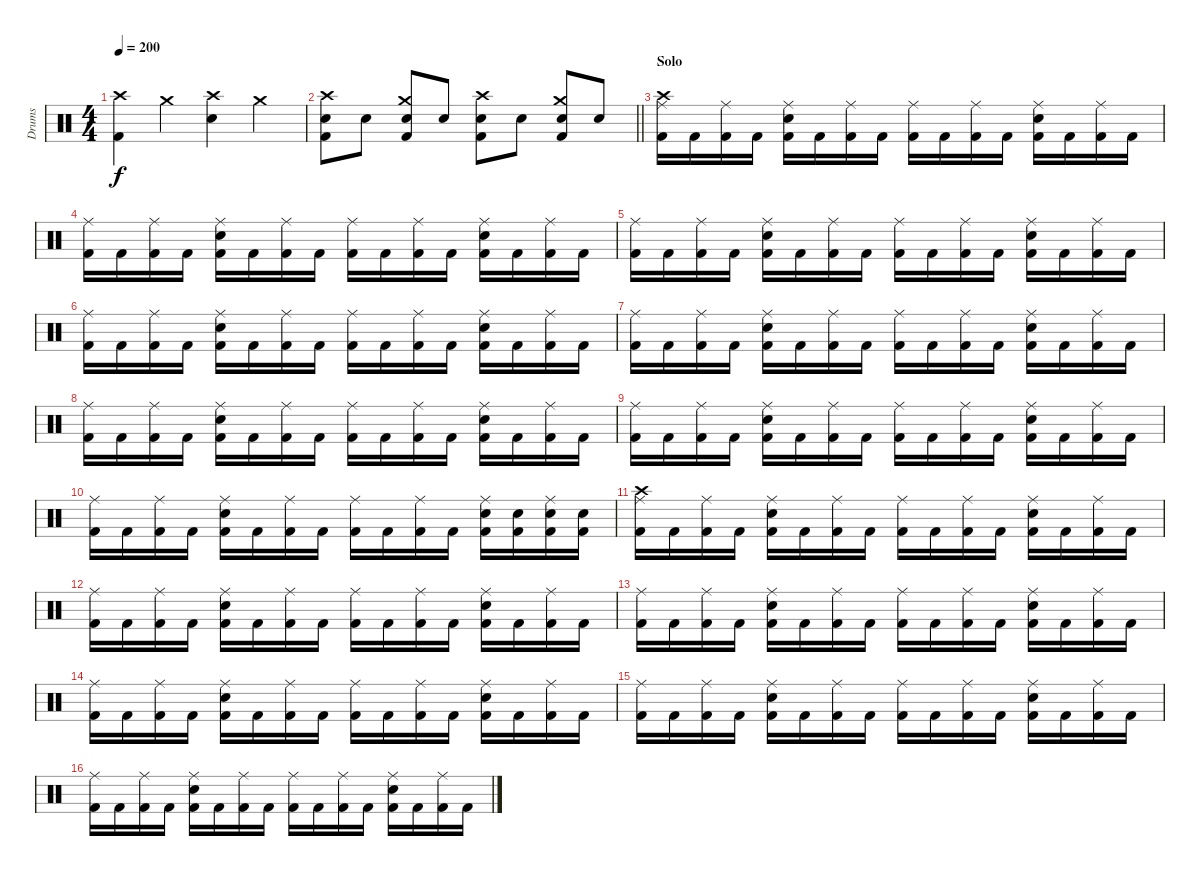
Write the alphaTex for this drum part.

\track ("Drums" "Drums") {instrument percussion}
\staff {score}
\articulation defaults
\ts (4 4)
\tempo 200
\clef neutral
\ks c
("Crash high (hit)" "Kick (hit) 2").4{dy f} "Crash medium (hit)".4 ("Crash high (hit)" "Snare (hit) 2").4 "Crash medium (hit)".4 |
\barLineRight lightlight
("Crash high (hit)" "Snare (hit) 2" "Kick (hit) 2").8 "Snare (hit) 2".8 ("Crash medium (hit)" "Snare (hit) 2" "Kick (hit) 2").8 "Snare (hit) 2".8 ("Crash high (hit)" "Snare (hit) 2" "Kick (hit) 2").8 "Snare (hit) 2".8 ("Crash medium (hit)" "Snare (hit) 2" "Kick (hit) 2").8 "Snare (hit) 2".8 |
\section ("" "Solo")
("Crash high (hit)" "Ride (middle)" "Kick (hit) 2").16 "Kick (hit) 2".16 ("Ride (middle)" "Kick (hit) 2").16 "Kick (hit) 2".16 ("Ride (middle)" "Snare (hit) 2" "Kick (hit) 2").16 "Kick (hit) 2".16 ("Ride (middle)" "Kick (hit) 2").16 "Kick (hit) 2".16 ("Ride (middle)" "Kick (hit) 2").16 "Kick (hit) 2".16 ("Ride (middle)" "Kick (hit) 2").16 "Kick (hit) 2".16 ("Ride (middle)" "Snare (hit) 2" "Kick (hit) 2").16 "Kick (hit) 2".16 ("Ride (middle)" "Kick (hit) 2").16 "Kick (hit) 2".16 |
("Ride (middle)" "Kick (hit) 2").16 "Kick (hit) 2".16 ("Ride (middle)" "Kick (hit) 2").16 "Kick (hit) 2".16 ("Ride (middle)" "Snare (hit) 2" "Kick (hit) 2").16 "Kick (hit) 2".16 ("Ride (middle)" "Kick (hit) 2").16 "Kick (hit) 2".16 ("Ride (middle)" "Kick (hit) 2").16 "Kick (hit) 2".16 ("Ride (middle)" "Kick (hit) 2").16 "Kick (hit) 2".16 ("Ride (middle)" "Snare (hit) 2" "Kick (hit) 2").16 "Kick (hit) 2".16 ("Ride (middle)" "Kick (hit) 2").16 "Kick (hit) 2".16 |
("Ride (middle)" "Kick (hit) 2").16 "Kick (hit) 2".16 ("Ride (middle)" "Kick (hit) 2").16 "Kick (hit) 2".16 ("Ride (middle)" "Snare (hit) 2" "Kick (hit) 2").16 "Kick (hit) 2".16 ("Ride (middle)" "Kick (hit) 2").16 "Kick (hit) 2".16 ("Ride (middle)" "Kick (hit) 2").16 "Kick (hit) 2".16 ("Ride (middle)" "Kick (hit) 2").16 "Kick (hit) 2".16 ("Ride (middle)" "Snare (hit) 2" "Kick (hit) 2").16 "Kick (hit) 2".16 ("Ride (middle)" "Kick (hit) 2").16 "Kick (hit) 2".16 |
("Ride (middle)" "Kick (hit) 2").16 "Kick (hit) 2".16 ("Ride (middle)" "Kick (hit) 2").16 "Kick (hit) 2".16 ("Ride (middle)" "Snare (hit) 2" "Kick (hit) 2").16 "Kick (hit) 2".16 ("Ride (middle)" "Kick (hit) 2").16 "Kick (hit) 2".16 ("Ride (middle)" "Kick (hit) 2").16 "Kick (hit) 2".16 ("Ride (middle)" "Kick (hit) 2").16 "Kick (hit) 2".16 ("Ride (middle)" "Snare (hit) 2" "Kick (hit) 2").16 "Kick (hit) 2".16 ("Ride (middle)" "Kick (hit) 2").16 "Kick (hit) 2".16 |
("Ride (middle)" "Kick (hit) 2").16 "Kick (hit) 2".16 ("Ride (middle)" "Kick (hit) 2").16 "Kick (hit) 2".16 ("Ride (middle)" "Snare (hit) 2" "Kick (hit) 2").16 "Kick (hit) 2".16 ("Ride (middle)" "Kick (hit) 2").16 "Kick (hit) 2".16 ("Ride (middle)" "Kick (hit) 2").16 "Kick (hit) 2".16 ("Ride (middle)" "Kick (hit) 2").16 "Kick (hit) 2".16 ("Ride (middle)" "Snare (hit) 2" "Kick (hit) 2").16 "Kick (hit) 2".16 ("Ride (middle)" "Kick (hit) 2").16 "Kick (hit) 2".16 |
("Ride (middle)" "Kick (hit) 2").16 "Kick (hit) 2".16 ("Ride (middle)" "Kick (hit) 2").16 "Kick (hit) 2".16 ("Ride (middle)" "Snare (hit) 2" "Kick (hit) 2").16 "Kick (hit) 2".16 ("Ride (middle)" "Kick (hit) 2").16 "Kick (hit) 2".16 ("Ride (middle)" "Kick (hit) 2").16 "Kick (hit) 2".16 ("Ride (middle)" "Kick (hit) 2").16 "Kick (hit) 2".16 ("Ride (middle)" "Snare (hit) 2" "Kick (hit) 2").16 "Kick (hit) 2".16 ("Ride (middle)" "Kick (hit) 2").16 "Kick (hit) 2".16 |
("Ride (middle)" "Kick (hit) 2").16 "Kick (hit) 2".16 ("Ride (middle)" "Kick (hit) 2").16 "Kick (hit) 2".16 ("Ride (middle)" "Snare (hit) 2" "Kick (hit) 2").16 "Kick (hit) 2".16 ("Ride (middle)" "Kick (hit) 2").16 "Kick (hit) 2".16 ("Ride (middle)" "Kick (hit) 2").16 "Kick (hit) 2".16 ("Ride (middle)" "Kick (hit) 2").16 "Kick (hit) 2".16 ("Ride (middle)" "Snare (hit) 2" "Kick (hit) 2").16 "Kick (hit) 2".16 ("Ride (middle)" "Kick (hit) 2").16 "Kick (hit) 2".16 |
("Ride (middle)" "Kick (hit) 2").16 "Kick (hit) 2".16 ("Ride (middle)" "Kick (hit) 2").16 "Kick (hit) 2".16 ("Ride (middle)" "Snare (hit) 2" "Kick (hit) 2").16 "Kick (hit) 2".16 ("Ride (middle)" "Kick (hit) 2").16 "Kick (hit) 2".16 ("Ride (middle)" "Kick (hit) 2").16 "Kick (hit) 2".16 ("Ride (middle)" "Kick (hit) 2").16 "Kick (hit) 2".16 ("Ride (middle)" "Snare (hit) 2" "Kick (hit) 2").16 ("Snare (hit) 2" "Kick (hit) 2").16 ("Ride (middle)" "Snare (hit) 2" "Kick (hit) 2").16 ("Snare (hit) 2" "Kick (hit) 2").16 |
("Crash high (hit)" "Ride (middle)" "Kick (hit) 2").16 "Kick (hit) 2".16 ("Ride (middle)" "Kick (hit) 2").16 "Kick (hit) 2".16 ("Ride (middle)" "Snare (hit) 2" "Kick (hit) 2").16 "Kick (hit) 2".16 ("Ride (middle)" "Kick (hit) 2").16 "Kick (hit) 2".16 ("Ride (middle)" "Kick (hit) 2").16 "Kick (hit) 2".16 ("Ride (middle)" "Kick (hit) 2").16 "Kick (hit) 2".16 ("Ride (middle)" "Snare (hit) 2" "Kick (hit) 2").16 "Kick (hit) 2".16 ("Ride (middle)" "Kick (hit) 2").16 "Kick (hit) 2".16 |
("Ride (middle)" "Kick (hit) 2").16 "Kick (hit) 2".16 ("Ride (middle)" "Kick (hit) 2").16 "Kick (hit) 2".16 ("Ride (middle)" "Snare (hit) 2" "Kick (hit) 2").16 "Kick (hit) 2".16 ("Ride (middle)" "Kick (hit) 2").16 "Kick (hit) 2".16 ("Ride (middle)" "Kick (hit) 2").16 "Kick (hit) 2".16 ("Ride (middle)" "Kick (hit) 2").16 "Kick (hit) 2".16 ("Ride (middle)" "Snare (hit) 2" "Kick (hit) 2").16 "Kick (hit) 2".16 ("Ride (middle)" "Kick (hit) 2").16 "Kick (hit) 2".16 |
("Ride (middle)" "Kick (hit) 2").16 "Kick (hit) 2".16 ("Ride (middle)" "Kick (hit) 2").16 "Kick (hit) 2".16 ("Ride (middle)" "Snare (hit) 2" "Kick (hit) 2").16 "Kick (hit) 2".16 ("Ride (middle)" "Kick (hit) 2").16 "Kick (hit) 2".16 ("Ride (middle)" "Kick (hit) 2").16 "Kick (hit) 2".16 ("Ride (middle)" "Kick (hit) 2").16 "Kick (hit) 2".16 ("Ride (middle)" "Snare (hit) 2" "Kick (hit) 2").16 "Kick (hit) 2".16 ("Ride (middle)" "Kick (hit) 2").16 "Kick (hit) 2".16 |
("Ride (middle)" "Kick (hit) 2").16 "Kick (hit) 2".16 ("Ride (middle)" "Kick (hit) 2").16 "Kick (hit) 2".16 ("Ride (middle)" "Snare (hit) 2" "Kick (hit) 2").16 "Kick (hit) 2".16 ("Ride (middle)" "Kick (hit) 2").16 "Kick (hit) 2".16 ("Ride (middle)" "Kick (hit) 2").16 "Kick (hit) 2".16 ("Ride (middle)" "Kick (hit) 2").16 "Kick (hit) 2".16 ("Ride (middle)" "Snare (hit) 2" "Kick (hit) 2").16 "Kick (hit) 2".16 ("Ride (middle)" "Kick (hit) 2").16 "Kick (hit) 2".16 |
("Ride (middle)" "Kick (hit) 2").16 "Kick (hit) 2".16 ("Ride (middle)" "Kick (hit) 2").16 "Kick (hit) 2".16 ("Ride (middle)" "Snare (hit) 2" "Kick (hit) 2").16 "Kick (hit) 2".16 ("Ride (middle)" "Kick (hit) 2").16 "Kick (hit) 2".16 ("Ride (middle)" "Kick (hit) 2").16 "Kick (hit) 2".16 ("Ride (middle)" "Kick (hit) 2").16 "Kick (hit) 2".16 ("Ride (middle)" "Snare (hit) 2" "Kick (hit) 2").16 "Kick (hit) 2".16 ("Ride (middle)" "Kick (hit) 2").16 "Kick (hit) 2".16 |
("Ride (middle)" "Kick (hit) 2").16 "Kick (hit) 2".16 ("Ride (middle)" "Kick (hit) 2").16 "Kick (hit) 2".16 ("Ride (middle)" "Snare (hit) 2" "Kick (hit) 2").16 "Kick (hit) 2".16 ("Ride (middle)" "Kick (hit) 2").16 "Kick (hit) 2".16 ("Ride (middle)" "Kick (hit) 2").16 "Kick (hit) 2".16 ("Ride (middle)" "Kick (hit) 2").16 "Kick (hit) 2".16 ("Ride (middle)" "Snare (hit) 2" "Kick (hit) 2").16 "Kick (hit) 2".16 ("Ride (middle)" "Kick (hit) 2").16 "Kick (hit) 2".16
